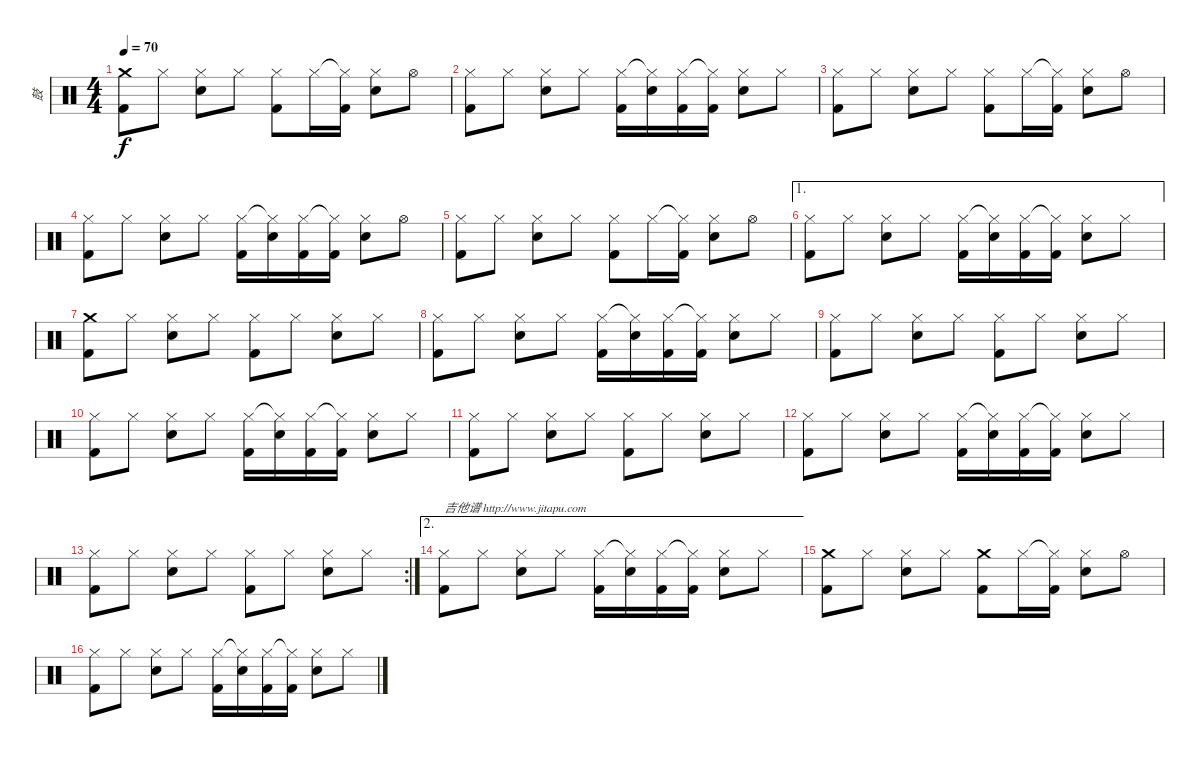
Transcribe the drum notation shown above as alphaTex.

\track ("鼓" "鼓") {instrument percussion}
\staff {score}
\articulation defaults
\ts (4 4)
\tempo 70
\clef neutral
\ks c
("Crash medium (hit)" "Kick (hit) 2").8{dy f} "Hi-Hat (closed)".8 ("Hi-Hat (closed)" "Electric Snare (hit)").8 "Hi-Hat (closed)".8 ("Hi-Hat (closed)" "Kick (hit) 2").8 "Hi-Hat (closed)".16 ("Hi-Hat (closed)"{t} "Kick (hit) 2").16 ("Hi-Hat (closed)" "Electric Snare (hit)").8 "Hi-Hat (open)".8 |
("Hi-Hat (closed)" "Kick (hit) 2").8 "Hi-Hat (closed)".8 ("Hi-Hat (closed)" "Electric Snare (hit)").8 "Hi-Hat (closed)".8 ("Hi-Hat (closed)" "Kick (hit) 2").16 ("Hi-Hat (closed)"{t} "Electric Snare (hit)").16 ("Hi-Hat (closed)" "Kick (hit) 2").16 ("Hi-Hat (closed)"{t} "Kick (hit) 2").16 ("Hi-Hat (closed)" "Electric Snare (hit)").8 "Hi-Hat (closed)".8 |
("Hi-Hat (closed)" "Kick (hit) 2").8 "Hi-Hat (closed)".8 ("Hi-Hat (closed)" "Electric Snare (hit)").8 "Hi-Hat (closed)".8 ("Hi-Hat (closed)" "Kick (hit) 2").8 "Hi-Hat (closed)".16 ("Hi-Hat (closed)"{t} "Kick (hit) 2").16 ("Hi-Hat (closed)" "Electric Snare (hit)").8 "Hi-Hat (open)".8 |
("Hi-Hat (closed)" "Kick (hit) 2").8 "Hi-Hat (closed)".8 ("Hi-Hat (closed)" "Electric Snare (hit)").8 "Hi-Hat (closed)".8 ("Hi-Hat (closed)" "Kick (hit) 2").16 ("Hi-Hat (closed)"{t} "Electric Snare (hit)").16 ("Hi-Hat (closed)" "Kick (hit) 2").16 ("Hi-Hat (closed)"{t} "Kick (hit) 2").16 ("Hi-Hat (closed)" "Electric Snare (hit)").8 "Hi-Hat (open)".8 |
("Hi-Hat (closed)" "Kick (hit) 2").8 "Hi-Hat (closed)".8 ("Hi-Hat (closed)" "Electric Snare (hit)").8 "Hi-Hat (closed)".8 ("Hi-Hat (closed)" "Kick (hit) 2").8 "Hi-Hat (closed)".16 ("Hi-Hat (closed)"{t} "Kick (hit) 2").16 ("Hi-Hat (closed)" "Electric Snare (hit)").8 "Hi-Hat (open)".8 |
\ae 1
("Hi-Hat (closed)" "Kick (hit) 2").8 "Hi-Hat (closed)".8 ("Hi-Hat (closed)" "Electric Snare (hit)").8 "Hi-Hat (closed)".8 ("Hi-Hat (closed)" "Kick (hit) 2").16 ("Hi-Hat (closed)"{t} "Electric Snare (hit)").16 ("Hi-Hat (closed)" "Kick (hit) 2").16 ("Hi-Hat (closed)"{t} "Kick (hit) 2").16 ("Hi-Hat (closed)" "Electric Snare (hit)").8 "Hi-Hat (closed)".8 |
("Crash medium (hit)" "Kick (hit) 2").8 "Hi-Hat (closed)".8 ("Hi-Hat (closed)" "Electric Snare (hit)").8 "Hi-Hat (closed)".8 ("Hi-Hat (closed)" "Kick (hit) 2").8 "Hi-Hat (closed)".8 ("Hi-Hat (closed)" "Electric Snare (hit)").8 "Hi-Hat (closed)".8 |
("Hi-Hat (closed)" "Kick (hit) 2").8 "Hi-Hat (closed)".8 ("Hi-Hat (closed)" "Electric Snare (hit)").8 "Hi-Hat (closed)".8 ("Hi-Hat (closed)" "Kick (hit) 2").16 ("Hi-Hat (closed)"{t} "Electric Snare (hit)").16 ("Hi-Hat (closed)" "Kick (hit) 2").16 ("Hi-Hat (closed)"{t} "Kick (hit) 2").16 ("Hi-Hat (closed)" "Electric Snare (hit)").8 "Hi-Hat (closed)".8 |
("Hi-Hat (closed)" "Kick (hit) 2").8 "Hi-Hat (closed)".8 ("Hi-Hat (closed)" "Electric Snare (hit)").8 "Hi-Hat (closed)".8 ("Hi-Hat (closed)" "Kick (hit) 2").8 "Hi-Hat (closed)".8 ("Hi-Hat (closed)" "Electric Snare (hit)").8 "Hi-Hat (closed)".8 |
("Hi-Hat (closed)" "Kick (hit) 2").8 "Hi-Hat (closed)".8 ("Hi-Hat (closed)" "Electric Snare (hit)").8 "Hi-Hat (closed)".8 ("Hi-Hat (closed)" "Kick (hit) 2").16 ("Hi-Hat (closed)"{t} "Electric Snare (hit)").16 ("Hi-Hat (closed)" "Kick (hit) 2").16 ("Hi-Hat (closed)"{t} "Kick (hit) 2").16 ("Hi-Hat (closed)" "Electric Snare (hit)").8 "Hi-Hat (closed)".8 |
("Hi-Hat (closed)" "Kick (hit) 2").8 "Hi-Hat (closed)".8 ("Hi-Hat (closed)" "Electric Snare (hit)").8 "Hi-Hat (closed)".8 ("Hi-Hat (closed)" "Kick (hit) 2").8 "Hi-Hat (closed)".8 ("Hi-Hat (closed)" "Electric Snare (hit)").8 "Hi-Hat (closed)".8 |
("Hi-Hat (closed)" "Kick (hit) 2").8 "Hi-Hat (closed)".8 ("Hi-Hat (closed)" "Electric Snare (hit)").8 "Hi-Hat (closed)".8 ("Hi-Hat (closed)" "Kick (hit) 2").16 ("Hi-Hat (closed)"{t} "Electric Snare (hit)").16 ("Hi-Hat (closed)" "Kick (hit) 2").16 ("Hi-Hat (closed)"{t} "Kick (hit) 2").16 ("Hi-Hat (closed)" "Electric Snare (hit)").8 "Hi-Hat (closed)".8 |
\rc 2
("Hi-Hat (closed)" "Kick (hit) 2").8 "Hi-Hat (closed)".8 ("Hi-Hat (closed)" "Electric Snare (hit)").8 "Hi-Hat (closed)".8 ("Hi-Hat (closed)" "Kick (hit) 2").8 "Hi-Hat (closed)".8 ("Hi-Hat (closed)" "Electric Snare (hit)").8 "Hi-Hat (closed)".8 |
\ae 2
("Hi-Hat (closed)" "Kick (hit) 2").8{txt "吉他谱 http://www.jitapu.com"} "Hi-Hat (closed)".8 ("Hi-Hat (closed)" "Electric Snare (hit)").8 "Hi-Hat (closed)".8 ("Hi-Hat (closed)" "Kick (hit) 2").16 ("Hi-Hat (closed)"{t} "Electric Snare (hit)").16 ("Hi-Hat (closed)" "Kick (hit) 2").16 ("Hi-Hat (closed)"{t} "Kick (hit) 2").16 ("Hi-Hat (closed)" "Electric Snare (hit)").8 "Hi-Hat (closed)".8 |
("Crash medium (hit)" "Kick (hit) 2").8 "Hi-Hat (closed)".8 ("Hi-Hat (closed)" "Electric Snare (hit)").8 "Hi-Hat (closed)".8 ("Crash medium (hit)" "Kick (hit) 2").8 "Hi-Hat (closed)".16 ("Hi-Hat (closed)"{t} "Kick (hit) 2").16 ("Hi-Hat (closed)" "Electric Snare (hit)").8 "Hi-Hat (open)".8 |
("Hi-Hat (closed)" "Kick (hit) 2").8 "Hi-Hat (closed)".8 ("Hi-Hat (closed)" "Electric Snare (hit)").8 "Hi-Hat (closed)".8 ("Hi-Hat (closed)" "Kick (hit) 2").16 ("Hi-Hat (closed)"{t} "Electric Snare (hit)").16 ("Hi-Hat (closed)" "Kick (hit) 2").16 ("Hi-Hat (closed)"{t} "Kick (hit) 2").16 ("Hi-Hat (closed)" "Electric Snare (hit)").8 "Hi-Hat (closed)".8
